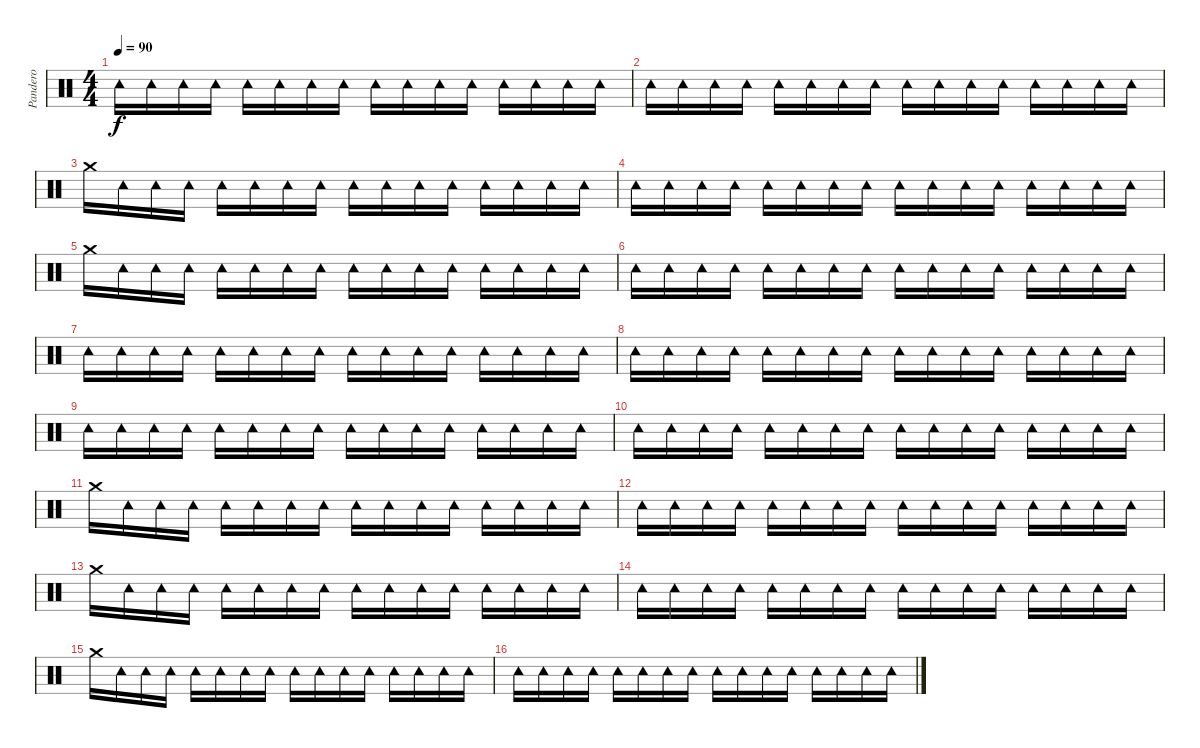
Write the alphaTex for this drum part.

\track ("Pandero" "Pandero") {instrument percussion}
\staff {score}
\articulation defaults
\ts (4 4)
\tempo 90
\clef neutral
\ks c "Tambourine (hit)".16{dy f} "Tambourine (hit)".16 "Tambourine (hit)".16 "Tambourine (hit)".16 "Tambourine (hit)".16 "Tambourine (hit)".16 "Tambourine (hit)".16 "Tambourine (hit)".16 "Tambourine (hit)".16 "Tambourine (hit)".16 "Tambourine (hit)".16 "Tambourine (hit)".16 "Tambourine (hit)".16 "Tambourine (hit)".16 "Tambourine (hit)".16 "Tambourine (hit)".16
|
"Tambourine (hit)".16 "Tambourine (hit)".16 "Tambourine (hit)".16 "Tambourine (hit)".16 "Tambourine (hit)".16 "Tambourine (hit)".16 "Tambourine (hit)".16 "Tambourine (hit)".16 "Tambourine (hit)".16 "Tambourine (hit)".16 "Tambourine (hit)".16 "Tambourine (hit)".16 "Tambourine (hit)".16 "Tambourine (hit)".16 "Tambourine (hit)".16 "Tambourine (hit)".16 |
"Crash medium (hit)".16 "Tambourine (hit)".16 "Tambourine (hit)".16 "Tambourine (hit)".16 "Tambourine (hit)".16 "Tambourine (hit)".16 "Tambourine (hit)".16 "Tambourine (hit)".16 "Tambourine (hit)".16 "Tambourine (hit)".16 "Tambourine (hit)".16 "Tambourine (hit)".16 "Tambourine (hit)".16 "Tambourine (hit)".16 "Tambourine (hit)".16 "Tambourine (hit)".16 |
"Tambourine (hit)".16 "Tambourine (hit)".16 "Tambourine (hit)".16 "Tambourine (hit)".16 "Tambourine (hit)".16 "Tambourine (hit)".16 "Tambourine (hit)".16 "Tambourine (hit)".16 "Tambourine (hit)".16 "Tambourine (hit)".16 "Tambourine (hit)".16 "Tambourine (hit)".16 "Tambourine (hit)".16 "Tambourine (hit)".16 "Tambourine (hit)".16 "Tambourine (hit)".16 |
"Crash medium (hit)".16 "Tambourine (hit)".16 "Tambourine (hit)".16 "Tambourine (hit)".16 "Tambourine (hit)".16 "Tambourine (hit)".16 "Tambourine (hit)".16 "Tambourine (hit)".16 "Tambourine (hit)".16 "Tambourine (hit)".16 "Tambourine (hit)".16 "Tambourine (hit)".16 "Tambourine (hit)".16 "Tambourine (hit)".16 "Tambourine (hit)".16 "Tambourine (hit)".16 |
"Tambourine (hit)".16 "Tambourine (hit)".16 "Tambourine (hit)".16 "Tambourine (hit)".16 "Tambourine (hit)".16 "Tambourine (hit)".16 "Tambourine (hit)".16 "Tambourine (hit)".16 "Tambourine (hit)".16 "Tambourine (hit)".16 "Tambourine (hit)".16 "Tambourine (hit)".16 "Tambourine (hit)".16 "Tambourine (hit)".16 "Tambourine (hit)".16 "Tambourine (hit)".16 |
"Tambourine (hit)".16 "Tambourine (hit)".16 "Tambourine (hit)".16 "Tambourine (hit)".16 "Tambourine (hit)".16 "Tambourine (hit)".16 "Tambourine (hit)".16 "Tambourine (hit)".16 "Tambourine (hit)".16 "Tambourine (hit)".16 "Tambourine (hit)".16 "Tambourine (hit)".16 "Tambourine (hit)".16 "Tambourine (hit)".16 "Tambourine (hit)".16 "Tambourine (hit)".16 |
"Tambourine (hit)".16 "Tambourine (hit)".16 "Tambourine (hit)".16 "Tambourine (hit)".16 "Tambourine (hit)".16 "Tambourine (hit)".16 "Tambourine (hit)".16 "Tambourine (hit)".16 "Tambourine (hit)".16 "Tambourine (hit)".16 "Tambourine (hit)".16 "Tambourine (hit)".16 "Tambourine (hit)".16 "Tambourine (hit)".16 "Tambourine (hit)".16 "Tambourine (hit)".16 |
"Tambourine (hit)".16 "Tambourine (hit)".16 "Tambourine (hit)".16 "Tambourine (hit)".16 "Tambourine (hit)".16 "Tambourine (hit)".16 "Tambourine (hit)".16 "Tambourine (hit)".16 "Tambourine (hit)".16 "Tambourine (hit)".16 "Tambourine (hit)".16 "Tambourine (hit)".16 "Tambourine (hit)".16 "Tambourine (hit)".16 "Tambourine (hit)".16 "Tambourine (hit)".16 |
"Tambourine (hit)".16 "Tambourine (hit)".16 "Tambourine (hit)".16 "Tambourine (hit)".16 "Tambourine (hit)".16 "Tambourine (hit)".16 "Tambourine (hit)".16 "Tambourine (hit)".16 "Tambourine (hit)".16 "Tambourine (hit)".16 "Tambourine (hit)".16 "Tambourine (hit)".16 "Tambourine (hit)".16 "Tambourine (hit)".16 "Tambourine (hit)".16 "Tambourine (hit)".16 |
"Crash medium (hit)".16 "Tambourine (hit)".16 "Tambourine (hit)".16 "Tambourine (hit)".16 "Tambourine (hit)".16 "Tambourine (hit)".16 "Tambourine (hit)".16 "Tambourine (hit)".16 "Tambourine (hit)".16 "Tambourine (hit)".16 "Tambourine (hit)".16 "Tambourine (hit)".16 "Tambourine (hit)".16 "Tambourine (hit)".16 "Tambourine (hit)".16 "Tambourine (hit)".16 |
"Tambourine (hit)".16 "Tambourine (hit)".16 "Tambourine (hit)".16 "Tambourine (hit)".16 "Tambourine (hit)".16 "Tambourine (hit)".16 "Tambourine (hit)".16 "Tambourine (hit)".16 "Tambourine (hit)".16 "Tambourine (hit)".16 "Tambourine (hit)".16 "Tambourine (hit)".16 "Tambourine (hit)".16 "Tambourine (hit)".16 "Tambourine (hit)".16 "Tambourine (hit)".16 |
"Crash medium (hit)".16 "Tambourine (hit)".16 "Tambourine (hit)".16 "Tambourine (hit)".16 "Tambourine (hit)".16 "Tambourine (hit)".16 "Tambourine (hit)".16 "Tambourine (hit)".16 "Tambourine (hit)".16 "Tambourine (hit)".16 "Tambourine (hit)".16 "Tambourine (hit)".16 "Tambourine (hit)".16 "Tambourine (hit)".16 "Tambourine (hit)".16 "Tambourine (hit)".16 |
"Tambourine (hit)".16 "Tambourine (hit)".16 "Tambourine (hit)".16 "Tambourine (hit)".16 "Tambourine (hit)".16 "Tambourine (hit)".16 "Tambourine (hit)".16 "Tambourine (hit)".16 "Tambourine (hit)".16 "Tambourine (hit)".16 "Tambourine (hit)".16 "Tambourine (hit)".16 "Tambourine (hit)".16 "Tambourine (hit)".16 "Tambourine (hit)".16 "Tambourine (hit)".16 |
"Crash medium (hit)".16 "Tambourine (hit)".16 "Tambourine (hit)".16 "Tambourine (hit)".16 "Tambourine (hit)".16 "Tambourine (hit)".16 "Tambourine (hit)".16 "Tambourine (hit)".16 "Tambourine (hit)".16 "Tambourine (hit)".16 "Tambourine (hit)".16 "Tambourine (hit)".16 "Tambourine (hit)".16 "Tambourine (hit)".16 "Tambourine (hit)".16 "Tambourine (hit)".16 |
"Tambourine (hit)".16 "Tambourine (hit)".16 "Tambourine (hit)".16 "Tambourine (hit)".16 "Tambourine (hit)".16 "Tambourine (hit)".16 "Tambourine (hit)".16 "Tambourine (hit)".16 "Tambourine (hit)".16 "Tambourine (hit)".16 "Tambourine (hit)".16 "Tambourine (hit)".16 "Tambourine (hit)".16 "Tambourine (hit)".16 "Tambourine (hit)".16 "Tambourine (hit)".16
